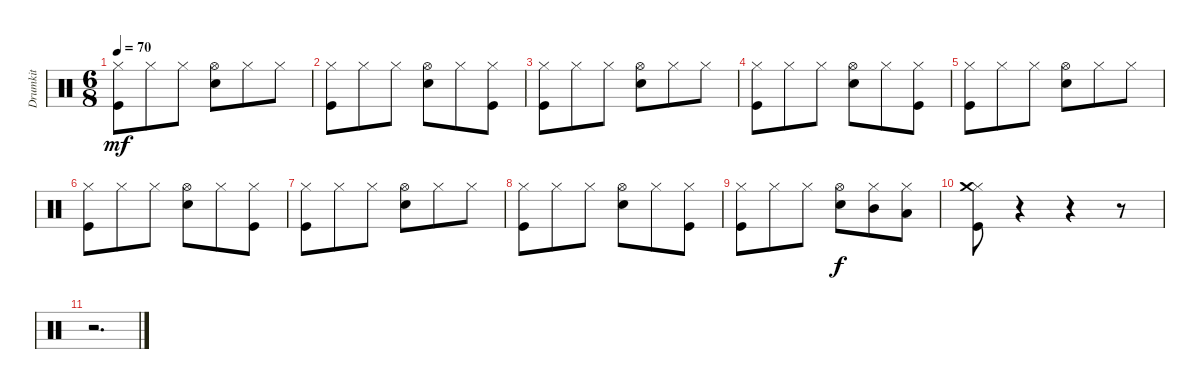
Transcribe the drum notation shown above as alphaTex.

\track ("Drumkit" "Drumkit") {instrument percussion}
\staff {score}
\articulation defaults
\ts (6 8)
\tempo 70
\clef neutral
\ks c
("Hi-Hat (closed)" "Kick (hit)").8{dy mf} "Hi-Hat (closed)".8 "Hi-Hat (closed)".8 ("Hi-Hat (open)" "Snare (hit) 2").8 "Hi-Hat (closed)".8 "Hi-Hat (closed)".8 |
("Hi-Hat (closed)" "Kick (hit)").8 "Hi-Hat (closed)".8 "Hi-Hat (closed)".8 ("Hi-Hat (open)" "Snare (hit) 2").8 "Hi-Hat (closed)".8 ("Hi-Hat (closed)" "Kick (hit)").8 |
("Hi-Hat (closed)" "Kick (hit)").8 "Hi-Hat (closed)".8 "Hi-Hat (closed)".8 ("Hi-Hat (open)" "Snare (hit) 2").8 "Hi-Hat (closed)".8 "Hi-Hat (closed)".8 |
("Hi-Hat (closed)" "Kick (hit)").8 "Hi-Hat (closed)".8 "Hi-Hat (closed)".8 ("Hi-Hat (open)" "Snare (hit) 2").8 "Hi-Hat (closed)".8 ("Hi-Hat (closed)" "Kick (hit)").8 |
("Hi-Hat (closed)" "Kick (hit)").8 "Hi-Hat (closed)".8 "Hi-Hat (closed)".8 ("Hi-Hat (open)" "Snare (hit) 2").8 "Hi-Hat (closed)".8 "Hi-Hat (closed)".8 |
("Hi-Hat (closed)" "Kick (hit)").8 "Hi-Hat (closed)".8 "Hi-Hat (closed)".8 ("Hi-Hat (open)" "Snare (hit) 2").8 "Hi-Hat (closed)".8 ("Hi-Hat (closed)" "Kick (hit)").8 |
("Hi-Hat (closed)" "Kick (hit)").8 "Hi-Hat (closed)".8 "Hi-Hat (closed)".8 ("Hi-Hat (open)" "Snare (hit) 2").8 "Hi-Hat (closed)".8 "Hi-Hat (closed)".8 |
("Hi-Hat (closed)" "Kick (hit)").8 "Hi-Hat (closed)".8 "Hi-Hat (closed)".8 ("Hi-Hat (open)" "Snare (hit) 2").8 "Hi-Hat (closed)".8 ("Hi-Hat (closed)" "Kick (hit)").8 |
("Hi-Hat (closed)" "Kick (hit)").8 "Hi-Hat (closed)".8 "Hi-Hat (closed)".8 ("Hi-Hat (open)" "Snare (hit) 2").8{dy f} ("Hi-Hat (closed)" "Mid Tom (hit)").8 ("Hi-Hat (closed)" "Low Tom (hit)").8 |
("Hi-Hat (closed)" "Kick (hit)" "Crash medium (hit)").8 r.4 r.4 r.8 |
r.2{d}
